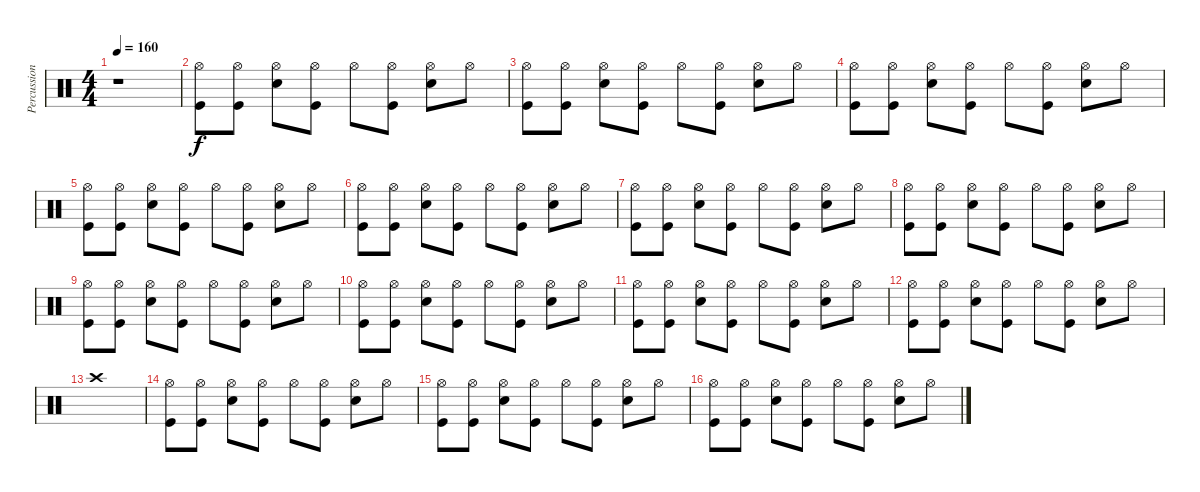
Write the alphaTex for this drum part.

\track ("Percussions" "Percussion") {instrument percussion}
\staff {score}
\articulation defaults
\ts (4 4)
\tempo 160
\clef neutral
\ks c
r.1{dy f} |
("Hi-Hat (open)" "Kick (hit)").8 ("Hi-Hat (open)" "Kick (hit)").8 ("Hi-Hat (open)" "Snare (hit) 2").8 ("Hi-Hat (open)" "Kick (hit)").8 "Hi-Hat (open)".8 ("Hi-Hat (open)" "Kick (hit)").8 ("Hi-Hat (open)" "Snare (hit) 2").8 "Hi-Hat (open)".8 |
("Hi-Hat (open)" "Kick (hit)").8 ("Hi-Hat (open)" "Kick (hit)").8 ("Hi-Hat (open)" "Snare (hit) 2").8 ("Hi-Hat (open)" "Kick (hit)").8 "Hi-Hat (open)".8 ("Hi-Hat (open)" "Kick (hit)").8 ("Hi-Hat (open)" "Snare (hit) 2").8 "Hi-Hat (open)".8 |
("Hi-Hat (open)" "Kick (hit)").8 ("Hi-Hat (open)" "Kick (hit)").8 ("Hi-Hat (open)" "Snare (hit) 2").8 ("Hi-Hat (open)" "Kick (hit)").8 "Hi-Hat (open)".8 ("Hi-Hat (open)" "Kick (hit)").8 ("Hi-Hat (open)" "Snare (hit) 2").8 "Hi-Hat (open)".8 |
("Hi-Hat (open)" "Kick (hit)").8 ("Hi-Hat (open)" "Kick (hit)").8 ("Hi-Hat (open)" "Snare (hit) 2").8 ("Hi-Hat (open)" "Kick (hit)").8 "Hi-Hat (open)".8 ("Hi-Hat (open)" "Kick (hit)").8 ("Hi-Hat (open)" "Snare (hit) 2").8 "Hi-Hat (open)".8 |
("Hi-Hat (open)" "Kick (hit)").8 ("Hi-Hat (open)" "Kick (hit)").8 ("Hi-Hat (open)" "Snare (hit) 2").8 ("Hi-Hat (open)" "Kick (hit)").8 "Hi-Hat (open)".8 ("Hi-Hat (open)" "Kick (hit)").8 ("Hi-Hat (open)" "Snare (hit) 2").8 "Hi-Hat (open)".8 |
("Hi-Hat (open)" "Kick (hit)").8 ("Hi-Hat (open)" "Kick (hit)").8 ("Hi-Hat (open)" "Snare (hit) 2").8 ("Hi-Hat (open)" "Kick (hit)").8 "Hi-Hat (open)".8 ("Hi-Hat (open)" "Kick (hit)").8 ("Hi-Hat (open)" "Snare (hit) 2").8 "Hi-Hat (open)".8 |
("Hi-Hat (open)" "Kick (hit)").8 ("Hi-Hat (open)" "Kick (hit)").8 ("Hi-Hat (open)" "Snare (hit) 2").8 ("Hi-Hat (open)" "Kick (hit)").8 "Hi-Hat (open)".8 ("Hi-Hat (open)" "Kick (hit)").8 ("Hi-Hat (open)" "Snare (hit) 2").8 "Hi-Hat (open)".8 |
("Hi-Hat (open)" "Kick (hit)").8 ("Hi-Hat (open)" "Kick (hit)").8 ("Hi-Hat (open)" "Snare (hit) 2").8 ("Hi-Hat (open)" "Kick (hit)").8 "Hi-Hat (open)".8 ("Hi-Hat (open)" "Kick (hit)").8 ("Hi-Hat (open)" "Snare (hit) 2").8 "Hi-Hat (open)".8 |
("Hi-Hat (open)" "Kick (hit)").8 ("Hi-Hat (open)" "Kick (hit)").8 ("Hi-Hat (open)" "Snare (hit) 2").8 ("Hi-Hat (open)" "Kick (hit)").8 "Hi-Hat (open)".8 ("Hi-Hat (open)" "Kick (hit)").8 ("Hi-Hat (open)" "Snare (hit) 2").8 "Hi-Hat (open)".8 |
("Hi-Hat (open)" "Kick (hit)").8 ("Hi-Hat (open)" "Kick (hit)").8 ("Hi-Hat (open)" "Snare (hit) 2").8 ("Hi-Hat (open)" "Kick (hit)").8 "Hi-Hat (open)".8 ("Hi-Hat (open)" "Kick (hit)").8 ("Hi-Hat (open)" "Snare (hit) 2").8 "Hi-Hat (open)".8 |
("Hi-Hat (open)" "Kick (hit)").8 ("Hi-Hat (open)" "Kick (hit)").8 ("Hi-Hat (open)" "Snare (hit) 2").8 ("Hi-Hat (open)" "Kick (hit)").8 "Hi-Hat (open)".8 ("Hi-Hat (open)" "Kick (hit)").8 ("Hi-Hat (open)" "Snare (hit) 2").8 "Hi-Hat (open)".8 |
"Crash high (hit)".1 |
("Hi-Hat (open)" "Kick (hit)").8 ("Hi-Hat (open)" "Kick (hit)").8 ("Hi-Hat (open)" "Snare (hit) 2").8 ("Hi-Hat (open)" "Kick (hit)").8 "Hi-Hat (open)".8 ("Hi-Hat (open)" "Kick (hit)").8 ("Hi-Hat (open)" "Snare (hit) 2").8 "Hi-Hat (open)".8 |
("Hi-Hat (open)" "Kick (hit)").8 ("Hi-Hat (open)" "Kick (hit)").8 ("Hi-Hat (open)" "Snare (hit) 2").8 ("Hi-Hat (open)" "Kick (hit)").8 "Hi-Hat (open)".8 ("Hi-Hat (open)" "Kick (hit)").8 ("Hi-Hat (open)" "Snare (hit) 2").8 "Hi-Hat (open)".8 |
("Hi-Hat (open)" "Kick (hit)").8 ("Hi-Hat (open)" "Kick (hit)").8 ("Hi-Hat (open)" "Snare (hit) 2").8 ("Hi-Hat (open)" "Kick (hit)").8 "Hi-Hat (open)".8 ("Hi-Hat (open)" "Kick (hit)").8 ("Hi-Hat (open)" "Snare (hit) 2").8 "Hi-Hat (open)".8
